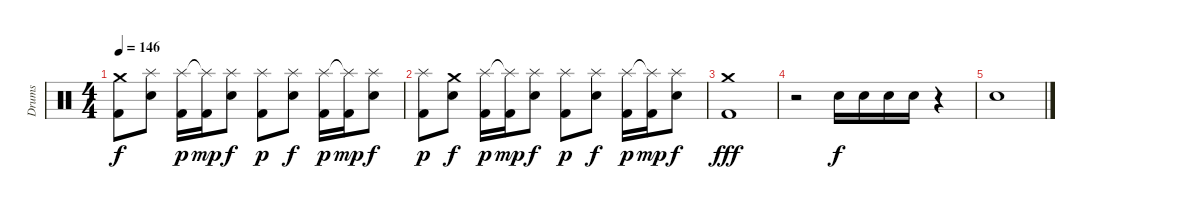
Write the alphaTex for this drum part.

\track ("Drums" "Drums") {instrument percussion}
\staff {score}
\articulation defaults
\ts (4 4)
\tempo 146
\clef neutral
\ks c
("Crash medium (hit)" "Kick (hit) 2").8{dy f} ("Splash (hit)" "Snare (hit) 2").8 ("Splash (hit)" "Kick (hit) 2").16{dy p} ("Splash (hit)"{t} "Kick (hit) 2").16{dy mp} ("Splash (hit)" "Snare (hit) 2").8{dy f} ("Splash (hit)" "Kick (hit) 2").8{dy p} ("Splash (hit)" "Snare (hit) 2").8{dy f} ("Splash (hit)" "Kick (hit) 2").16{dy p} ("Splash (hit)"{t} "Kick (hit) 2").16{dy mp} ("Splash (hit)" "Snare (hit) 2").8{dy f} |
("Splash (hit)" "Kick (hit) 2").8{dy p} ("Crash medium (hit)" "Snare (hit) 2").8{dy f} ("Splash (hit)" "Kick (hit) 2").16{dy p} ("Splash (hit)"{t} "Kick (hit) 2").16{dy mp} ("Splash (hit)" "Snare (hit) 2").8{dy f} ("Splash (hit)" "Kick (hit) 2").8{dy p} ("Splash (hit)" "Snare (hit) 2").8{dy f} ("Splash (hit)" "Kick (hit) 2").16{dy p} ("Splash (hit)"{t} "Kick (hit) 2").16{dy mp} ("Splash (hit)" "Snare (hit) 2").8{dy f} |
("Crash medium (hit)" "Kick (hit) 2").1{dy fff} |
r.2 "Snare (hit) 2".16{dy f} "Snare (hit) 2".16 "Snare (hit) 2".16 "Snare (hit) 2".16 r.4 |
"Snare (hit)"{x}.1
